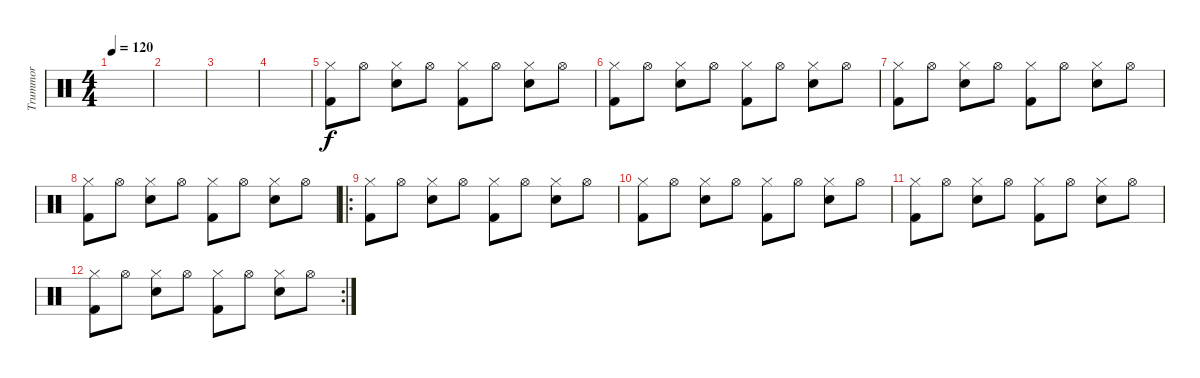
\track ("Trummor" "Trummor") {instrument percussion}
\staff {score}
\articulation defaults
\ts (4 4)
\tempo 120
\clef neutral
\ks c
|
|
|
|
("Hi-Hat (closed)" "Kick (hit) 2").8 "Hi-Hat (open)".8 ("Hi-Hat (closed)" "Snare (hit) 2").8 "Hi-Hat (open)".8 ("Hi-Hat (closed)" "Kick (hit) 2").8 "Hi-Hat (open)".8 ("Hi-Hat (closed)" "Snare (hit) 2").8 "Hi-Hat (open)".8 |
("Hi-Hat (closed)" "Kick (hit) 2").8 "Hi-Hat (open)".8 ("Hi-Hat (closed)" "Snare (hit) 2").8 "Hi-Hat (open)".8 ("Hi-Hat (closed)" "Kick (hit) 2").8 "Hi-Hat (open)".8 ("Hi-Hat (closed)" "Snare (hit) 2").8 "Hi-Hat (open)".8 |
("Hi-Hat (closed)" "Kick (hit) 2").8 "Hi-Hat (open)".8 ("Hi-Hat (closed)" "Snare (hit) 2").8 "Hi-Hat (open)".8 ("Hi-Hat (closed)" "Kick (hit) 2").8 "Hi-Hat (open)".8 ("Hi-Hat (closed)" "Snare (hit) 2").8 "Hi-Hat (open)".8 |
("Hi-Hat (closed)" "Kick (hit) 2").8 "Hi-Hat (open)".8 ("Hi-Hat (closed)" "Snare (hit) 2").8 "Hi-Hat (open)".8 ("Hi-Hat (closed)" "Kick (hit) 2").8 "Hi-Hat (open)".8 ("Hi-Hat (closed)" "Snare (hit) 2").8 "Hi-Hat (open)".8 |
\ro
("Hi-Hat (closed)" "Kick (hit) 2").8 "Hi-Hat (open)".8 ("Hi-Hat (closed)" "Snare (hit) 2").8 "Hi-Hat (open)".8 ("Hi-Hat (closed)" "Kick (hit) 2").8 "Hi-Hat (open)".8 ("Hi-Hat (closed)" "Snare (hit) 2").8 "Hi-Hat (open)".8 |
("Hi-Hat (closed)" "Kick (hit) 2").8 "Hi-Hat (open)".8 ("Hi-Hat (closed)" "Snare (hit) 2").8 "Hi-Hat (open)".8 ("Hi-Hat (closed)" "Kick (hit) 2").8 "Hi-Hat (open)".8 ("Hi-Hat (closed)" "Snare (hit) 2").8 "Hi-Hat (open)".8 |
("Hi-Hat (closed)" "Kick (hit) 2").8 "Hi-Hat (open)".8 ("Hi-Hat (closed)" "Snare (hit) 2").8 "Hi-Hat (open)".8 ("Hi-Hat (closed)" "Kick (hit) 2").8 "Hi-Hat (open)".8 ("Hi-Hat (closed)" "Snare (hit) 2").8 "Hi-Hat (open)".8 |
\rc 2
("Hi-Hat (closed)" "Kick (hit) 2").8 "Hi-Hat (open)".8 ("Hi-Hat (closed)" "Snare (hit) 2").8 "Hi-Hat (open)".8 ("Hi-Hat (closed)" "Kick (hit) 2").8 "Hi-Hat (open)".8 ("Hi-Hat (closed)" "Snare (hit) 2").8 "Hi-Hat (open)".8
